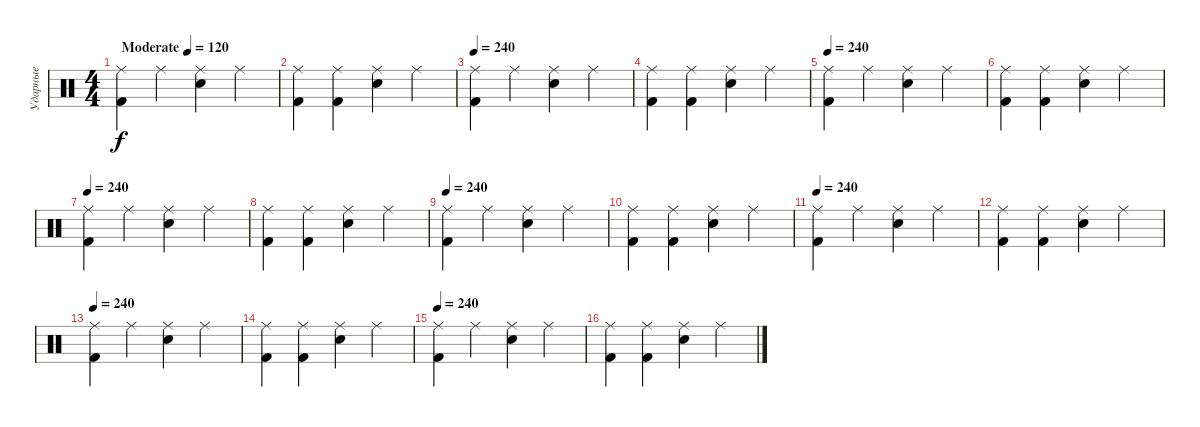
\track ("Ударные" "Ударные") {instrument percussion}
\staff {score}
\articulation defaults
\ts (4 4)
\tempo (120 "Moderate")
\tempo 240
\tempo (120 "Moderate")
\clef neutral
\ks c
("Ride (middle)" "Kick (hit) 2").4{dy f} "Ride (middle)".4 ("Ride (middle)" "Electric Snare (hit)").4 "Ride (middle)".4 |
("Ride (middle)" "Kick (hit) 2").4 ("Ride (middle)" "Kick (hit) 2").4 ("Ride (middle)" "Electric Snare (hit)").4 "Ride (middle)".4 |
\tempo 240
("Ride (middle)" "Kick (hit) 2").4 "Ride (middle)".4 ("Ride (middle)" "Electric Snare (hit)").4 "Ride (middle)".4 |
("Ride (middle)" "Kick (hit) 2").4 ("Ride (middle)" "Kick (hit) 2").4 ("Ride (middle)" "Electric Snare (hit)").4 "Ride (middle)".4 |
\tempo 240
("Ride (middle)" "Kick (hit) 2").4 "Ride (middle)".4 ("Ride (middle)" "Electric Snare (hit)").4 "Ride (middle)".4 |
("Ride (middle)" "Kick (hit) 2").4 ("Ride (middle)" "Kick (hit) 2").4 ("Ride (middle)" "Electric Snare (hit)").4 "Ride (middle)".4 |
\tempo 240
("Ride (middle)" "Kick (hit) 2").4 "Ride (middle)".4 ("Ride (middle)" "Electric Snare (hit)").4 "Ride (middle)".4 |
("Ride (middle)" "Kick (hit) 2").4 ("Ride (middle)" "Kick (hit) 2").4 ("Ride (middle)" "Electric Snare (hit)").4 "Ride (middle)".4 |
\tempo 240
("Ride (middle)" "Kick (hit) 2").4 "Ride (middle)".4 ("Ride (middle)" "Electric Snare (hit)").4 "Ride (middle)".4 |
("Ride (middle)" "Kick (hit) 2").4 ("Ride (middle)" "Kick (hit) 2").4 ("Ride (middle)" "Electric Snare (hit)").4 "Ride (middle)".4 |
\tempo 240
("Ride (middle)" "Kick (hit) 2").4 "Ride (middle)".4 ("Ride (middle)" "Electric Snare (hit)").4 "Ride (middle)".4 |
("Ride (middle)" "Kick (hit) 2").4 ("Ride (middle)" "Kick (hit) 2").4 ("Ride (middle)" "Electric Snare (hit)").4 "Ride (middle)".4 |
\tempo 240
("Ride (middle)" "Kick (hit) 2").4 "Ride (middle)".4 ("Ride (middle)" "Electric Snare (hit)").4 "Ride (middle)".4 |
("Ride (middle)" "Kick (hit) 2").4 ("Ride (middle)" "Kick (hit) 2").4 ("Ride (middle)" "Electric Snare (hit)").4 "Ride (middle)".4 |
\tempo 240
("Ride (middle)" "Kick (hit) 2").4 "Ride (middle)".4 ("Ride (middle)" "Electric Snare (hit)").4 "Ride (middle)".4 |
("Ride (middle)" "Kick (hit) 2").4 ("Ride (middle)" "Kick (hit) 2").4 ("Ride (middle)" "Electric Snare (hit)").4 "Ride (middle)".4
